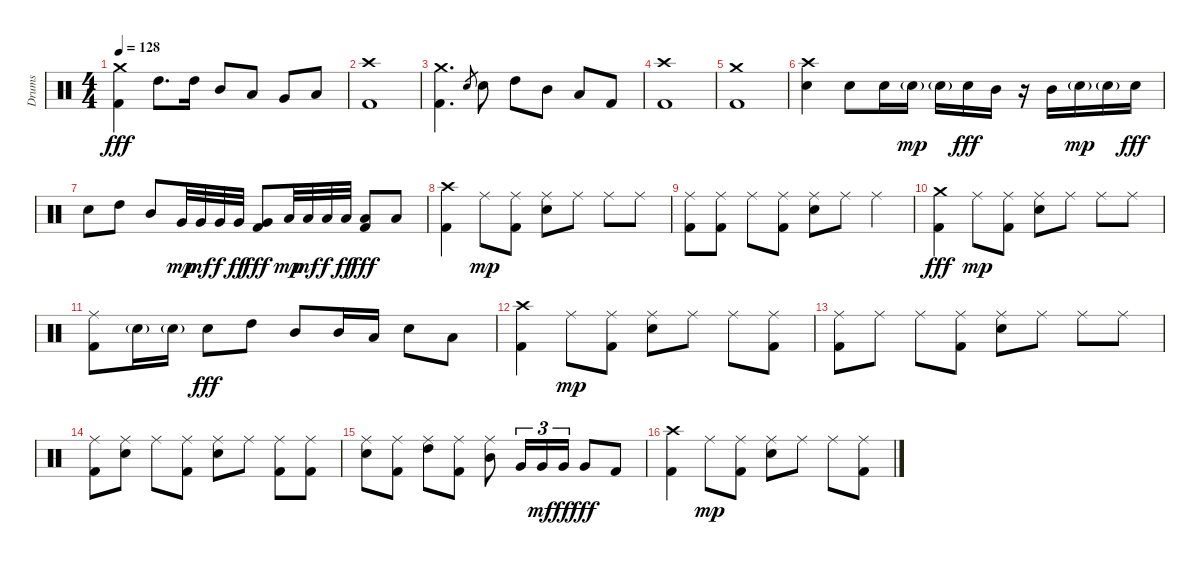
\track ("Drums" "Drums") {instrument percussion}
\staff {score}
\articulation defaults
\ts (4 4)
\tempo 128
\clef neutral
\ks c
("Kick (hit) 2" "Crash medium (hit)").4{dy fff} "High Tom (hit)".8{d} "High Tom (hit)".16 "Mid Tom (hit)".8 "Low Tom (hit)".8 "Very Low Tom (hit)".8 "Low Floor Tom (hit)".8 |
("Kick (hit) 2" "Crash high (hit)").1 |
("Kick (hit) 2" "Crash medium (hit)").4{d} "Electric Snare (hit)".8{gr} "Electric Snare (hit)".8 "High Tom (hit)".8 "Mid Tom (hit)".8 "Low Tom (hit)".8 "Kick (hit) 2".8 |
("Kick (hit) 2" "Crash high (hit)").1 |
("Kick (hit) 2" "Crash medium (hit)").1 |
("Electric Snare (hit)" "Crash high (hit)").4 "Electric Snare (hit)".8 "Electric Snare (hit)".16 "Electric Snare (hit)"{g}.16{dy mp} "Electric Snare (hit)"{g}.16 "Electric Snare (hit)".16{dy fff} "Mid Tom (hit)".16 r.16 "Mid Tom (hit)".16 "Electric Snare (hit)"{g}.16{dy mp} "Electric Snare (hit)"{g}.16 "Electric Snare (hit)".16{dy fff} |
"Electric Snare (hit)".8 "High Tom (hit)".8 "Mid Tom (hit)".8 "Very Low Tom (hit)".32{dy mp} "Very Low Tom (hit)".32{dy mf} "Very Low Tom (hit)".32{dy f} "Very Low Tom (hit)".32{dy ff} ("Kick (hit) 2" "Very Low Tom (hit)").8{dy fff} "Low Floor Tom (hit)".32{dy mp} "Low Floor Tom (hit)".32{dy mf} "Low Floor Tom (hit)".32{dy f} "Low Floor Tom (hit)".32{dy ff} ("Kick (hit) 2" "Low Floor Tom (hit)").8{dy fff} "Low Floor Tom (hit)".8 |
("Kick (hit) 2" "Crash high (hit)").4 "Ride (middle)".8{dy mp} ("Kick (hit) 2" "Ride (middle)").8 ("Electric Snare (hit)" "Ride (middle)").8 "Ride (middle)".8 "Ride (middle)".8 "Ride (middle)".8 |
("Kick (hit) 2" "Ride (middle)").8 ("Kick (hit) 2" "Ride (middle)").8 "Ride (middle)".8 ("Kick (hit) 2" "Ride (middle)").8 ("Electric Snare (hit)" "Ride (middle)").8 "Ride (middle)".8 "Ride (middle)".4 |
("Kick (hit) 2" "Crash medium (hit)").4{dy fff} "Ride (middle)".8{dy mp} ("Kick (hit) 2" "Ride (middle)").8 ("Electric Snare (hit)" "Ride (middle)").8 "Ride (middle)".8 "Ride (middle)".8 "Ride (middle)".8 |
("Kick (hit) 2" "Ride (middle)").8 "Electric Snare (hit)"{g}.16 "Electric Snare (hit)"{g}.16 "Electric Snare (hit)".8{dy fff} "High Tom (hit)".8 "Mid Tom (hit)".8 "Mid Tom (hit)".16 "Low Tom (hit)".16 "Electric Snare (hit)".8 "Low Tom (hit)".8 |
("Kick (hit) 2" "Crash high (hit)").4 "Ride (middle)".8{dy mp} ("Kick (hit) 2" "Ride (middle)").8 ("Electric Snare (hit)" "Ride (middle)").8 "Ride (middle)".8 "Ride (middle)".8 ("Kick (hit) 2" "Ride (middle)").8 |
("Kick (hit) 2" "Ride (middle)").8 "Ride (middle)".8 "Ride (middle)".8 ("Kick (hit) 2" "Ride (middle)").8 ("Electric Snare (hit)" "Ride (middle)").8 "Ride (middle)".8 "Ride (middle)".8 "Ride (middle)".8 |
("Kick (hit) 2" "Ride (middle)").8 ("Electric Snare (hit)" "Ride (middle)").8 "Ride (middle)".8 ("Kick (hit) 2" "Ride (middle)").8 ("Electric Snare (hit)" "Ride (middle)").8 "Ride (middle)".8 ("Kick (hit) 2" "Ride (middle)").8 ("Kick (hit) 2" "Ride (middle)").8 |
("Electric Snare (hit)" "Ride (middle)").8 ("Kick (hit) 2" "Ride (middle)").8 ("High Tom (hit)" "Ride (middle)").8 ("Kick (hit) 2" "Ride (middle)").8 ("Mid Tom (hit)" "Ride (middle)").8 "Very Low Tom (hit)".16{tu (3 2)} "Very Low Tom (hit)".16{tu (3 2) dy mf} "Very Low Tom (hit)".16{tu (3 2) dy ff} "Very Low Tom (hit)".8{dy fff} "Kick (hit) 2".8 |
("Kick (hit) 2" "Crash high (hit)").4 "Ride (middle)".8{dy mp} ("Kick (hit) 2" "Ride (middle)").8 ("Electric Snare (hit)" "Ride (middle)").8 "Ride (middle)".8 "Ride (middle)".8 ("Kick (hit) 2" "Ride (middle)").8
